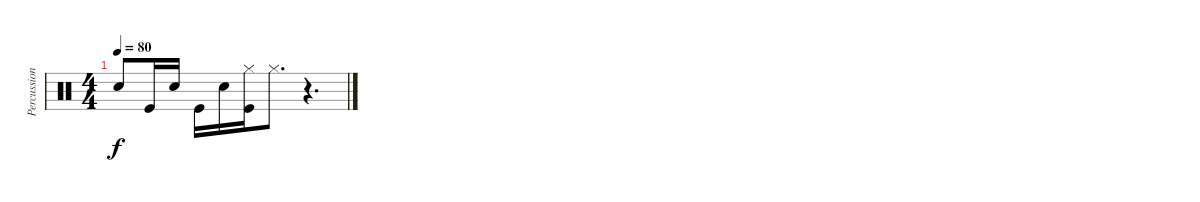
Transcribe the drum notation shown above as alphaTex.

\track ("Percussion" "Percussion") {instrument percussion}
\staff {score}
\articulation defaults
\ts (4 4)
\tempo 80
\clef neutral
\ks c "Snare (hit) 2".8{dy f} "Kick (hit)".16 "Snare (hit) 2".16 "Kick (hit)".16 "Snare (hit) 2".16
("Hi-Hat (closed)" "Kick (hit)").16 "Hi-Hat (closed)".8{d} r.4{d}
